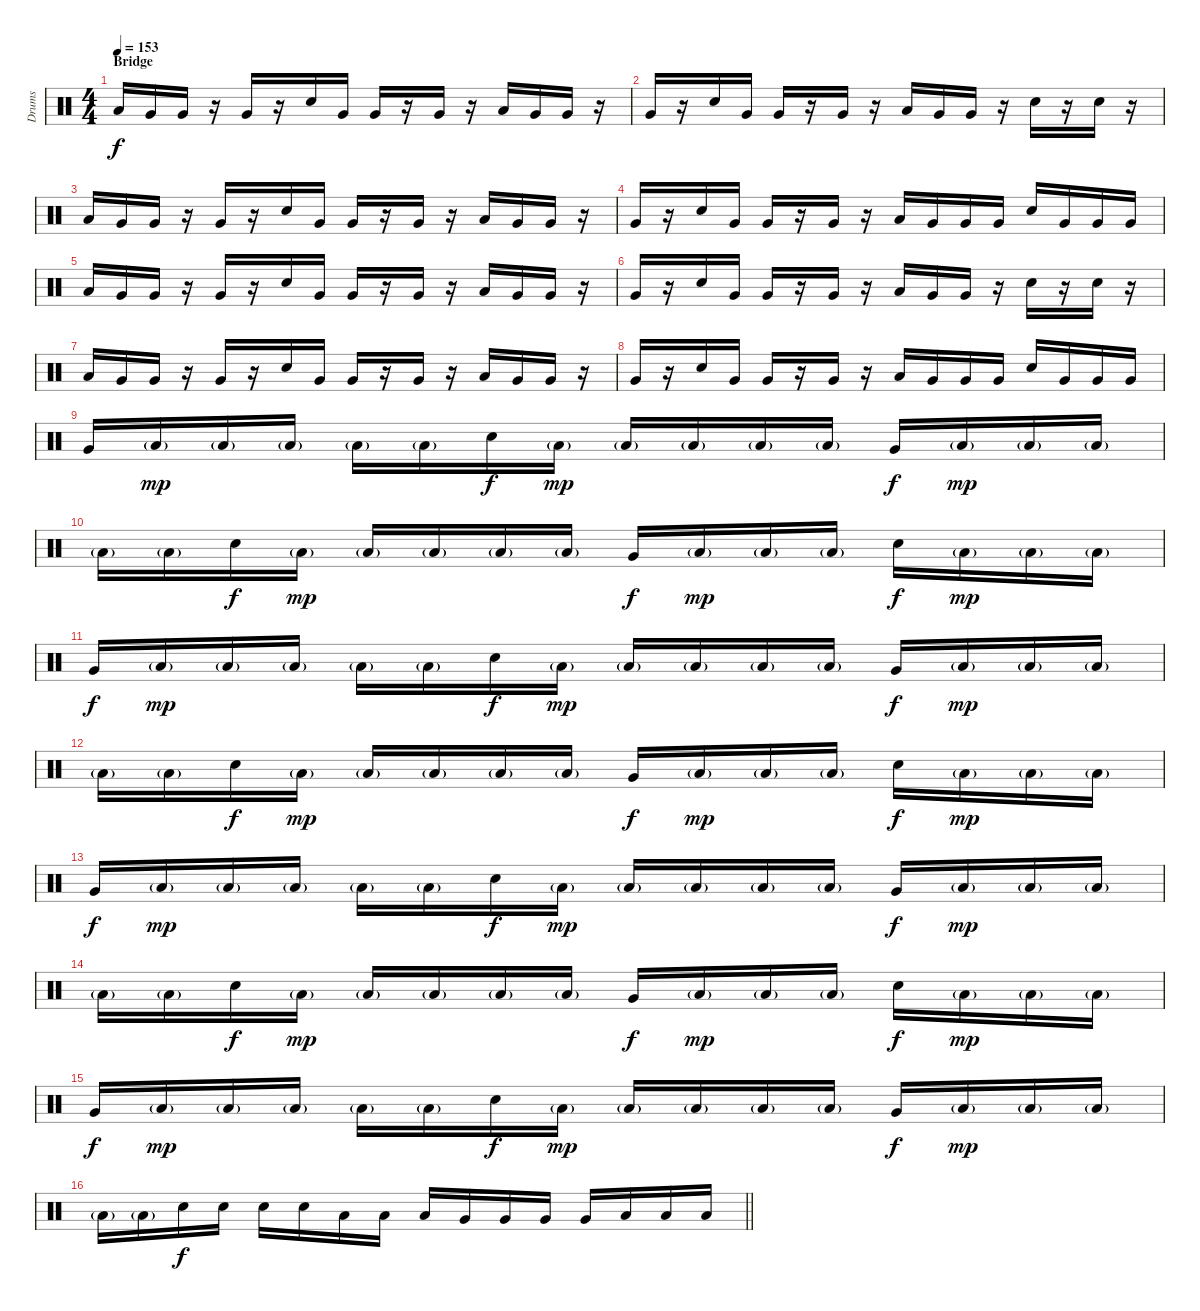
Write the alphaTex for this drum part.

\track ("Drums" "Drums") {instrument percussion}
\staff {score}
\articulation defaults
\ts (4 4)
\section ("" "Bridge")
\tempo 153
\clef neutral
\ks c "Low Tom (hit)".16{dy f} "Very Low Tom (hit)".16 "Very Low Tom (hit)".16
r.16 "Very Low Tom (hit)".16 r.16 "Electric Snare (hit)".16 "Very Low Tom (hit)".16 "Very Low Tom (hit)".16 r.16 "Very Low Tom (hit)".16 r.16 "Low Tom (hit)".16 "Very Low Tom (hit)".16 "Very Low Tom (hit)".16 r.16 |
"Very Low Tom (hit)".16 r.16 "Electric Snare (hit)".16 "Very Low Tom (hit)".16 "Very Low Tom (hit)".16 r.16 "Very Low Tom (hit)".16 r.16 "Low Tom (hit)".16 "Very Low Tom (hit)".16 "Very Low Tom (hit)".16 r.16 "Electric Snare (hit)".16 r.16 "Electric Snare (hit)".16 r.16 |
"Low Tom (hit)".16 "Very Low Tom (hit)".16 "Very Low Tom (hit)".16 r.16 "Very Low Tom (hit)".16 r.16 "Electric Snare (hit)".16 "Very Low Tom (hit)".16 "Very Low Tom (hit)".16 r.16 "Very Low Tom (hit)".16 r.16 "Low Tom (hit)".16 "Very Low Tom (hit)".16 "Very Low Tom (hit)".16 r.16 |
"Very Low Tom (hit)".16 r.16 "Electric Snare (hit)".16 "Very Low Tom (hit)".16 "Very Low Tom (hit)".16 r.16 "Very Low Tom (hit)".16 r.16 "Low Tom (hit)".16 "Very Low Tom (hit)".16 "Very Low Tom (hit)".16 "Very Low Tom (hit)".16 "Electric Snare (hit)".16 "Very Low Tom (hit)".16 "Very Low Tom (hit)".16 "Very Low Tom (hit)".16 |
"Low Tom (hit)".16 "Very Low Tom (hit)".16 "Very Low Tom (hit)".16 r.16 "Very Low Tom (hit)".16 r.16 "Electric Snare (hit)".16 "Very Low Tom (hit)".16 "Very Low Tom (hit)".16 r.16 "Very Low Tom (hit)".16 r.16 "Low Tom (hit)".16 "Very Low Tom (hit)".16 "Very Low Tom (hit)".16 r.16 |
"Very Low Tom (hit)".16 r.16 "Electric Snare (hit)".16 "Very Low Tom (hit)".16 "Very Low Tom (hit)".16 r.16 "Very Low Tom (hit)".16 r.16 "Low Tom (hit)".16 "Very Low Tom (hit)".16 "Very Low Tom (hit)".16 r.16 "Electric Snare (hit)".16 r.16 "Electric Snare (hit)".16 r.16 |
"Low Tom (hit)".16 "Very Low Tom (hit)".16 "Very Low Tom (hit)".16 r.16 "Very Low Tom (hit)".16 r.16 "Electric Snare (hit)".16 "Very Low Tom (hit)".16 "Very Low Tom (hit)".16 r.16 "Very Low Tom (hit)".16 r.16 "Low Tom (hit)".16 "Very Low Tom (hit)".16 "Very Low Tom (hit)".16 r.16 |
"Very Low Tom (hit)".16 r.16 "Electric Snare (hit)".16 "Very Low Tom (hit)".16 "Very Low Tom (hit)".16 r.16 "Very Low Tom (hit)".16 r.16 "Low Tom (hit)".16 "Very Low Tom (hit)".16 "Very Low Tom (hit)".16 "Very Low Tom (hit)".16 "Electric Snare (hit)".16 "Very Low Tom (hit)".16 "Very Low Tom (hit)".16 "Very Low Tom (hit)".16 |
"Very Low Tom (hit)".16 "Low Tom (hit)"{g}.16{dy mp} "Low Tom (hit)"{g}.16 "Low Tom (hit)"{g}.16 "Low Tom (hit)"{g}.16 "Low Tom (hit)"{g}.16 "Electric Snare (hit)".16{dy f} "Low Tom (hit)"{g}.16{dy mp} "Low Tom (hit)"{g}.16 "Low Tom (hit)"{g}.16 "Low Tom (hit)"{g}.16 "Low Tom (hit)"{g}.16 "Very Low Tom (hit)".16{dy f} "Low Tom (hit)"{g}.16{dy mp} "Low Tom (hit)"{g}.16 "Low Tom (hit)"{g}.16 |
"Low Tom (hit)"{g}.16 "Low Tom (hit)"{g}.16 "Electric Snare (hit)".16{dy f} "Low Tom (hit)"{g}.16{dy mp} "Low Tom (hit)"{g}.16 "Low Tom (hit)"{g}.16 "Low Tom (hit)"{g}.16 "Low Tom (hit)"{g}.16 "Very Low Tom (hit)".16{dy f} "Low Tom (hit)"{g}.16{dy mp} "Low Tom (hit)"{g}.16 "Low Tom (hit)"{g}.16 "Electric Snare (hit)".16{dy f} "Low Tom (hit)"{g}.16{dy mp} "Low Tom (hit)"{g}.16 "Low Tom (hit)"{g}.16 |
"Very Low Tom (hit)".16{dy f} "Low Tom (hit)"{g}.16{dy mp} "Low Tom (hit)"{g}.16 "Low Tom (hit)"{g}.16 "Low Tom (hit)"{g}.16 "Low Tom (hit)"{g}.16 "Electric Snare (hit)".16{dy f} "Low Tom (hit)"{g}.16{dy mp} "Low Tom (hit)"{g}.16 "Low Tom (hit)"{g}.16 "Low Tom (hit)"{g}.16 "Low Tom (hit)"{g}.16 "Very Low Tom (hit)".16{dy f} "Low Tom (hit)"{g}.16{dy mp} "Low Tom (hit)"{g}.16 "Low Tom (hit)"{g}.16 |
"Low Tom (hit)"{g}.16 "Low Tom (hit)"{g}.16 "Electric Snare (hit)".16{dy f} "Low Tom (hit)"{g}.16{dy mp} "Low Tom (hit)"{g}.16 "Low Tom (hit)"{g}.16 "Low Tom (hit)"{g}.16 "Low Tom (hit)"{g}.16 "Very Low Tom (hit)".16{dy f} "Low Tom (hit)"{g}.16{dy mp} "Low Tom (hit)"{g}.16 "Low Tom (hit)"{g}.16 "Electric Snare (hit)".16{dy f} "Low Tom (hit)"{g}.16{dy mp} "Low Tom (hit)"{g}.16 "Low Tom (hit)"{g}.16 |
"Very Low Tom (hit)".16{dy f} "Low Tom (hit)"{g}.16{dy mp} "Low Tom (hit)"{g}.16 "Low Tom (hit)"{g}.16 "Low Tom (hit)"{g}.16 "Low Tom (hit)"{g}.16 "Electric Snare (hit)".16{dy f} "Low Tom (hit)"{g}.16{dy mp} "Low Tom (hit)"{g}.16 "Low Tom (hit)"{g}.16 "Low Tom (hit)"{g}.16 "Low Tom (hit)"{g}.16 "Very Low Tom (hit)".16{dy f} "Low Tom (hit)"{g}.16{dy mp} "Low Tom (hit)"{g}.16 "Low Tom (hit)"{g}.16 |
"Low Tom (hit)"{g}.16 "Low Tom (hit)"{g}.16 "Electric Snare (hit)".16{dy f} "Low Tom (hit)"{g}.16{dy mp} "Low Tom (hit)"{g}.16 "Low Tom (hit)"{g}.16 "Low Tom (hit)"{g}.16 "Low Tom (hit)"{g}.16 "Very Low Tom (hit)".16{dy f} "Low Tom (hit)"{g}.16{dy mp} "Low Tom (hit)"{g}.16 "Low Tom (hit)"{g}.16 "Electric Snare (hit)".16{dy f} "Low Tom (hit)"{g}.16{dy mp} "Low Tom (hit)"{g}.16 "Low Tom (hit)"{g}.16 |
"Very Low Tom (hit)".16{dy f} "Low Tom (hit)"{g}.16{dy mp} "Low Tom (hit)"{g}.16 "Low Tom (hit)"{g}.16 "Low Tom (hit)"{g}.16 "Low Tom (hit)"{g}.16 "Electric Snare (hit)".16{dy f} "Low Tom (hit)"{g}.16{dy mp} "Low Tom (hit)"{g}.16 "Low Tom (hit)"{g}.16 "Low Tom (hit)"{g}.16 "Low Tom (hit)"{g}.16 "Very Low Tom (hit)".16{dy f} "Low Tom (hit)"{g}.16{dy mp} "Low Tom (hit)"{g}.16 "Low Tom (hit)"{g}.16 |
\barLineRight lightlight "Low Tom (hit)"{g}.16 "Low Tom (hit)"{g}.16 "Electric Snare (hit)".16{dy f} "Electric Snare (hit)".16 "Electric Snare (hit)".16 "Electric Snare (hit)".16 "Low Tom (hit)".16 "Low Tom (hit)".16 "Low Tom (hit)".16 "Very Low Tom (hit)".16 "Very Low Tom (hit)".16 "Very Low Tom (hit)".16 "Very Low Tom (hit)".16 "Low Floor Tom (hit)".16 "Low Floor Tom (hit)".16 "Low Floor Tom (hit)".16
